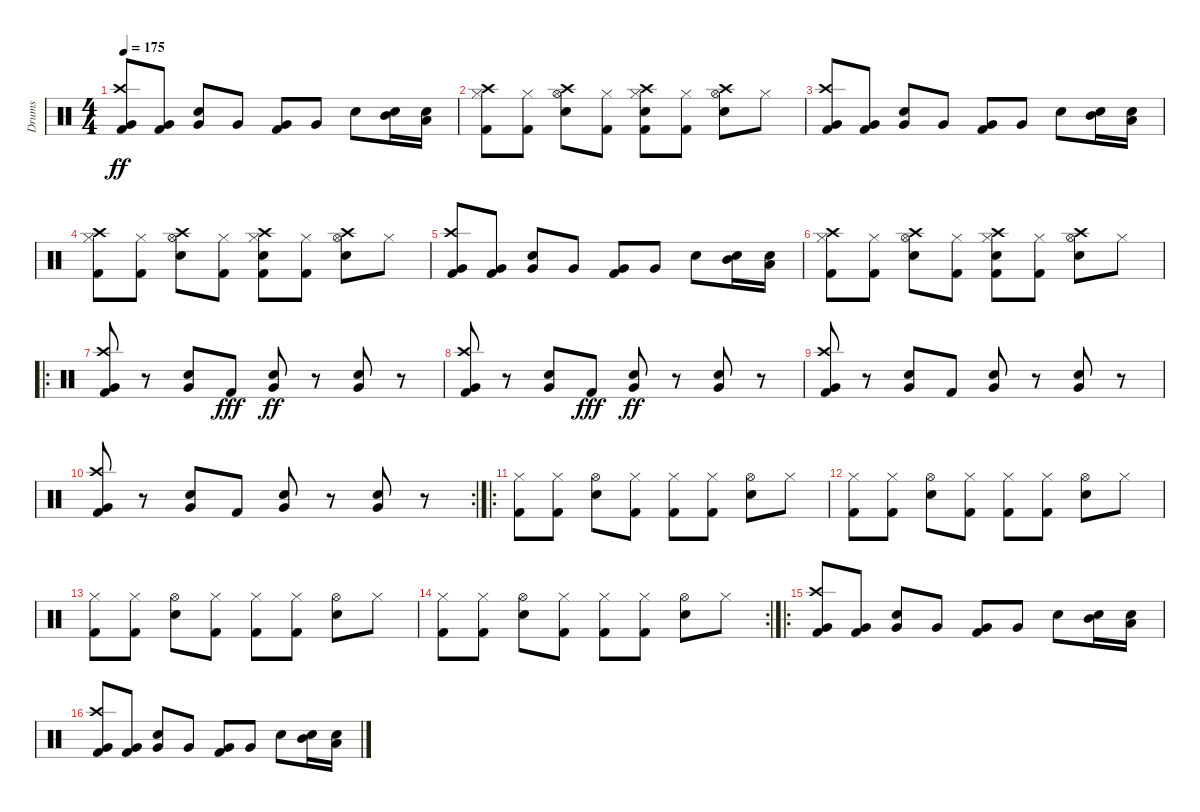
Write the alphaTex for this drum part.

\track ("Drums" "Drums") {instrument percussion}
\staff {score}
\articulation defaults
\ts (4 4)
\tempo 175
\clef neutral
\ks c
("Very Low Tom (hit)" "Crash high (hit)" "Kick (hit) 2").8{dy ff} ("Very Low Tom (hit)" "Kick (hit) 2").8 ("Very Low Tom (hit)" "Snare (hit) 2").8 "Very Low Tom (hit)".8 ("Very Low Tom (hit)" "Kick (hit) 2").8 "Very Low Tom (hit)".8 "Snare (hit) 2".8 ("Mid Tom (hit)" "Snare (hit) 2").16 ("Low Tom (hit)" "Snare (hit) 2").16 |
("Crash high (hit)" "Hi-Hat (closed)" "Kick (hit) 2").8 ("Hi-Hat (closed)" "Kick (hit) 2").8 ("Crash high (hit)" "Hi-Hat (open)" "Snare (hit) 2").8 ("Hi-Hat (closed)" "Kick (hit) 2").8 ("Crash high (hit)" "Hi-Hat (closed)" "Snare (hit) 2" "Kick (hit) 2").8 ("Hi-Hat (closed)" "Kick (hit) 2").8 ("Crash high (hit)" "Hi-Hat (open)" "Snare (hit) 2").8 "Hi-Hat (closed)".8 |
("Very Low Tom (hit)" "Crash high (hit)" "Kick (hit) 2").8 ("Very Low Tom (hit)" "Kick (hit) 2").8 ("Very Low Tom (hit)" "Snare (hit) 2").8 "Very Low Tom (hit)".8 ("Very Low Tom (hit)" "Kick (hit) 2").8 "Very Low Tom (hit)".8 "Snare (hit) 2".8 ("Mid Tom (hit)" "Snare (hit) 2").16 ("Low Tom (hit)" "Snare (hit) 2").16 |
("Crash high (hit)" "Hi-Hat (closed)" "Kick (hit) 2").8 ("Hi-Hat (closed)" "Kick (hit) 2").8 ("Crash high (hit)" "Hi-Hat (open)" "Snare (hit) 2").8 ("Hi-Hat (closed)" "Kick (hit) 2").8 ("Crash high (hit)" "Hi-Hat (closed)" "Snare (hit) 2" "Kick (hit) 2").8 ("Hi-Hat (closed)" "Kick (hit) 2").8 ("Crash high (hit)" "Hi-Hat (open)" "Snare (hit) 2").8 "Hi-Hat (closed)".8 |
("Very Low Tom (hit)" "Crash high (hit)" "Kick (hit) 2").8 ("Very Low Tom (hit)" "Kick (hit) 2").8 ("Very Low Tom (hit)" "Snare (hit) 2").8 "Very Low Tom (hit)".8 ("Very Low Tom (hit)" "Kick (hit) 2").8 "Very Low Tom (hit)".8 "Snare (hit) 2".8 ("Mid Tom (hit)" "Snare (hit) 2").16 ("Low Tom (hit)" "Snare (hit) 2").16 |
("Crash high (hit)" "Hi-Hat (closed)" "Kick (hit) 2").8 ("Hi-Hat (closed)" "Kick (hit) 2").8 ("Crash high (hit)" "Hi-Hat (open)" "Snare (hit) 2").8 ("Hi-Hat (closed)" "Kick (hit) 2").8 ("Crash high (hit)" "Hi-Hat (closed)" "Snare (hit) 2" "Kick (hit) 2").8 ("Hi-Hat (closed)" "Kick (hit) 2").8 ("Crash high (hit)" "Hi-Hat (open)" "Snare (hit) 2").8 "Hi-Hat (closed)".8 |
\ro
("Crash high (hit)" "Very Low Tom (hit)" "Kick (hit) 2").8 r.8 ("Very Low Tom (hit)" "Snare (hit) 2").8 "Kick (hit) 2".8{dy fff} ("Very Low Tom (hit)" "Snare (hit) 2").8{dy ff} r.8 ("Very Low Tom (hit)" "Snare (hit) 2").8 r.8 |
("Crash high (hit)" "Very Low Tom (hit)" "Kick (hit) 2").8 r.8 ("Very Low Tom (hit)" "Snare (hit) 2").8 "Kick (hit) 2".8{dy fff} ("Very Low Tom (hit)" "Snare (hit) 2").8{dy ff} r.8 ("Very Low Tom (hit)" "Snare (hit) 2").8 r.8 |
("Crash high (hit)" "Very Low Tom (hit)" "Kick (hit) 2").8 r.8 ("Very Low Tom (hit)" "Snare (hit) 2").8 "Kick (hit) 2".8 ("Very Low Tom (hit)" "Snare (hit) 2").8 r.8 ("Very Low Tom (hit)" "Snare (hit) 2").8 r.8 |
\rc 2
("Crash high (hit)" "Very Low Tom (hit)" "Kick (hit) 2").8 r.8 ("Very Low Tom (hit)" "Snare (hit) 2").8 "Kick (hit) 2".8 ("Very Low Tom (hit)" "Snare (hit) 2").8 r.8 ("Very Low Tom (hit)" "Snare (hit) 2").8 r.8 |
\ro
("Hi-Hat (closed)" "Kick (hit) 2").8 ("Hi-Hat (closed)" "Kick (hit) 2").8 ("Hi-Hat (open)" "Snare (hit) 2").8 ("Hi-Hat (closed)" "Kick (hit) 2").8 ("Hi-Hat (closed)" "Kick (hit) 2").8 ("Hi-Hat (closed)" "Kick (hit) 2").8 ("Hi-Hat (open)" "Snare (hit) 2").8 "Hi-Hat (closed)".8 |
("Hi-Hat (closed)" "Kick (hit) 2").8 ("Hi-Hat (closed)" "Kick (hit) 2").8 ("Hi-Hat (open)" "Snare (hit) 2").8 ("Hi-Hat (closed)" "Kick (hit) 2").8 ("Hi-Hat (closed)" "Kick (hit) 2").8 ("Hi-Hat (closed)" "Kick (hit) 2").8 ("Hi-Hat (open)" "Snare (hit) 2").8 "Hi-Hat (closed)".8 |
("Hi-Hat (closed)" "Kick (hit) 2").8 ("Hi-Hat (closed)" "Kick (hit) 2").8 ("Hi-Hat (open)" "Snare (hit) 2").8 ("Hi-Hat (closed)" "Kick (hit) 2").8 ("Hi-Hat (closed)" "Kick (hit) 2").8 ("Hi-Hat (closed)" "Kick (hit) 2").8 ("Hi-Hat (open)" "Snare (hit) 2").8 "Hi-Hat (closed)".8 |
\rc 2
("Hi-Hat (closed)" "Kick (hit) 2").8 ("Hi-Hat (closed)" "Kick (hit) 2").8 ("Hi-Hat (open)" "Snare (hit) 2").8 ("Hi-Hat (closed)" "Kick (hit) 2").8 ("Hi-Hat (closed)" "Kick (hit) 2").8 ("Hi-Hat (closed)" "Kick (hit) 2").8 ("Hi-Hat (open)" "Snare (hit) 2").8 "Hi-Hat (closed)".8 |
\ro
("Very Low Tom (hit)" "Crash high (hit)" "Kick (hit) 2").8 ("Very Low Tom (hit)" "Kick (hit) 2").8 ("Very Low Tom (hit)" "Snare (hit) 2").8 "Very Low Tom (hit)".8 ("Very Low Tom (hit)" "Kick (hit) 2").8 "Very Low Tom (hit)".8 "Snare (hit) 2".8 ("Mid Tom (hit)" "Snare (hit) 2").16 ("Low Tom (hit)" "Snare (hit) 2").16 |
("Very Low Tom (hit)" "Crash high (hit)" "Kick (hit) 2").8 ("Very Low Tom (hit)" "Kick (hit) 2").8 ("Very Low Tom (hit)" "Snare (hit) 2").8 "Very Low Tom (hit)".8 ("Very Low Tom (hit)" "Kick (hit) 2").8 "Very Low Tom (hit)".8 "Snare (hit) 2".8 ("Mid Tom (hit)" "Snare (hit) 2").16 ("Low Tom (hit)" "Snare (hit) 2").16
